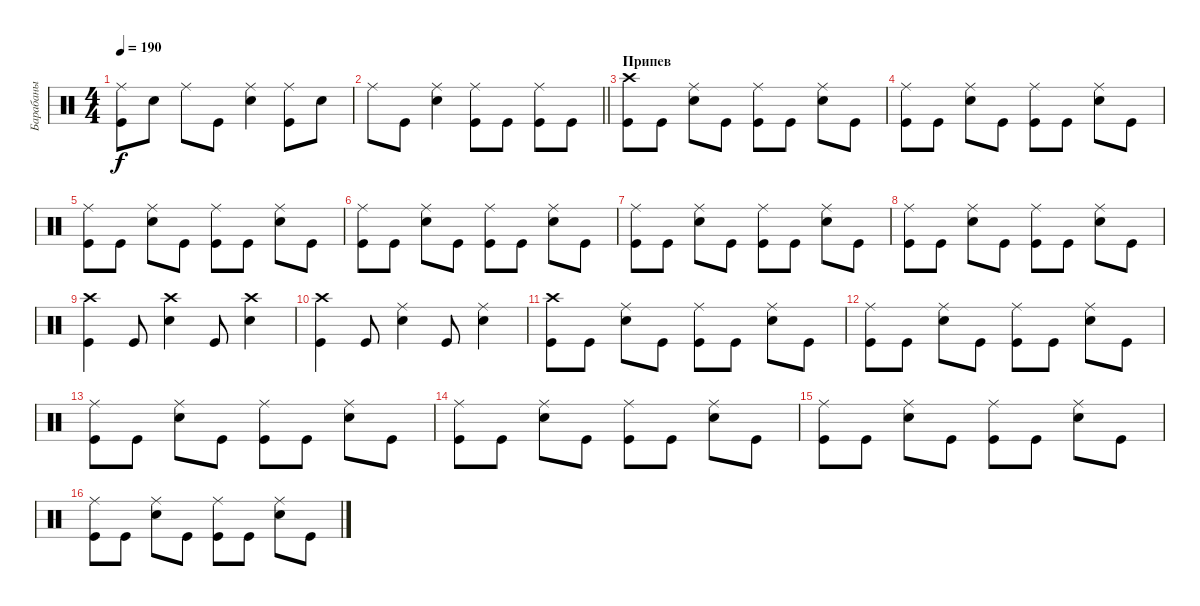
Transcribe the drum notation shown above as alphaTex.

\track ("Барабаны" "Барабаны") {instrument percussion}
\staff {score}
\articulation defaults
\ts (4 4)
\tempo 190
\clef neutral
\ks c
("Kick (hit)" "Ride (middle)").8{dy f} "Snare (hit) 2".8 "Ride (middle)".8 "Kick (hit)".8 ("Snare (hit) 2" "Ride (middle)").4 ("Kick (hit)" "Ride (middle)").8 "Snare (hit) 2".8 |
\barLineRight lightlight "Ride (middle)".8 "Kick (hit)".8
("Snare (hit) 2" "Ride (middle)").4 ("Kick (hit)" "Ride (middle)").8 "Kick (hit)".8 ("Kick (hit)" "Ride (middle)").8 "Kick (hit)".8 |
\section ("" "Припев")
("Kick (hit)" "Crash high (hit)").8 "Kick (hit)".8 ("Snare (hit) 2" "Ride (middle)").8 "Kick (hit)".8 ("Kick (hit)" "Ride (middle)").8 "Kick (hit)".8 ("Snare (hit) 2" "Ride (middle)").8 "Kick (hit)".8 |
("Kick (hit)" "Ride (middle)").8 "Kick (hit)".8 ("Snare (hit) 2" "Ride (middle)").8 "Kick (hit)".8 ("Kick (hit)" "Ride (middle)").8 "Kick (hit)".8 ("Snare (hit) 2" "Ride (middle)").8 "Kick (hit)".8 |
("Kick (hit)" "Ride (middle)").8 "Kick (hit)".8 ("Snare (hit) 2" "Ride (middle)").8 "Kick (hit)".8 ("Kick (hit)" "Ride (middle)").8 "Kick (hit)".8 ("Snare (hit) 2" "Ride (middle)").8 "Kick (hit)".8 |
("Kick (hit)" "Ride (middle)").8 "Kick (hit)".8 ("Snare (hit) 2" "Ride (middle)").8 "Kick (hit)".8 ("Kick (hit)" "Ride (middle)").8 "Kick (hit)".8 ("Snare (hit) 2" "Ride (middle)").8 "Kick (hit)".8 |
("Kick (hit)" "Ride (middle)").8 "Kick (hit)".8 ("Snare (hit) 2" "Ride (middle)").8 "Kick (hit)".8 ("Kick (hit)" "Ride (middle)").8 "Kick (hit)".8 ("Snare (hit) 2" "Ride (middle)").8 "Kick (hit)".8 |
("Kick (hit)" "Ride (middle)").8 "Kick (hit)".8 ("Snare (hit) 2" "Ride (middle)").8 "Kick (hit)".8 ("Kick (hit)" "Ride (middle)").8 "Kick (hit)".8 ("Snare (hit) 2" "Ride (middle)").8 "Kick (hit)".8 |
("Kick (hit)" "Crash high (hit)").4 "Kick (hit)".8 ("Snare (hit) 2" "Crash high (hit)").4 "Kick (hit)".8 ("Snare (hit) 2" "Crash high (hit)").4 |
("Kick (hit)" "Crash high (hit)").4 "Kick (hit)".8 ("Snare (hit) 2" "Ride (middle)").4 "Kick (hit)".8 ("Snare (hit) 2" "Ride (middle)").4 |
("Kick (hit)" "Crash high (hit)").8 "Kick (hit)".8 ("Snare (hit) 2" "Ride (middle)").8 "Kick (hit)".8 ("Kick (hit)" "Ride (middle)").8 "Kick (hit)".8 ("Snare (hit) 2" "Ride (middle)").8 "Kick (hit)".8 |
("Kick (hit)" "Ride (middle)").8 "Kick (hit)".8 ("Snare (hit) 2" "Ride (middle)").8 "Kick (hit)".8 ("Kick (hit)" "Ride (middle)").8 "Kick (hit)".8 ("Snare (hit) 2" "Ride (middle)").8 "Kick (hit)".8 |
("Kick (hit)" "Ride (middle)").8 "Kick (hit)".8 ("Snare (hit) 2" "Ride (middle)").8 "Kick (hit)".8 ("Kick (hit)" "Ride (middle)").8 "Kick (hit)".8 ("Snare (hit) 2" "Ride (middle)").8 "Kick (hit)".8 |
("Kick (hit)" "Ride (middle)").8 "Kick (hit)".8 ("Snare (hit) 2" "Ride (middle)").8 "Kick (hit)".8 ("Kick (hit)" "Ride (middle)").8 "Kick (hit)".8 ("Snare (hit) 2" "Ride (middle)").8 "Kick (hit)".8 |
("Kick (hit)" "Ride (middle)").8 "Kick (hit)".8 ("Snare (hit) 2" "Ride (middle)").8 "Kick (hit)".8 ("Kick (hit)" "Ride (middle)").8 "Kick (hit)".8 ("Snare (hit) 2" "Ride (middle)").8 "Kick (hit)".8 |
("Kick (hit)" "Ride (middle)").8 "Kick (hit)".8 ("Snare (hit) 2" "Ride (middle)").8 "Kick (hit)".8 ("Kick (hit)" "Ride (middle)").8 "Kick (hit)".8 ("Snare (hit) 2" "Ride (middle)").8 "Kick (hit)".8
